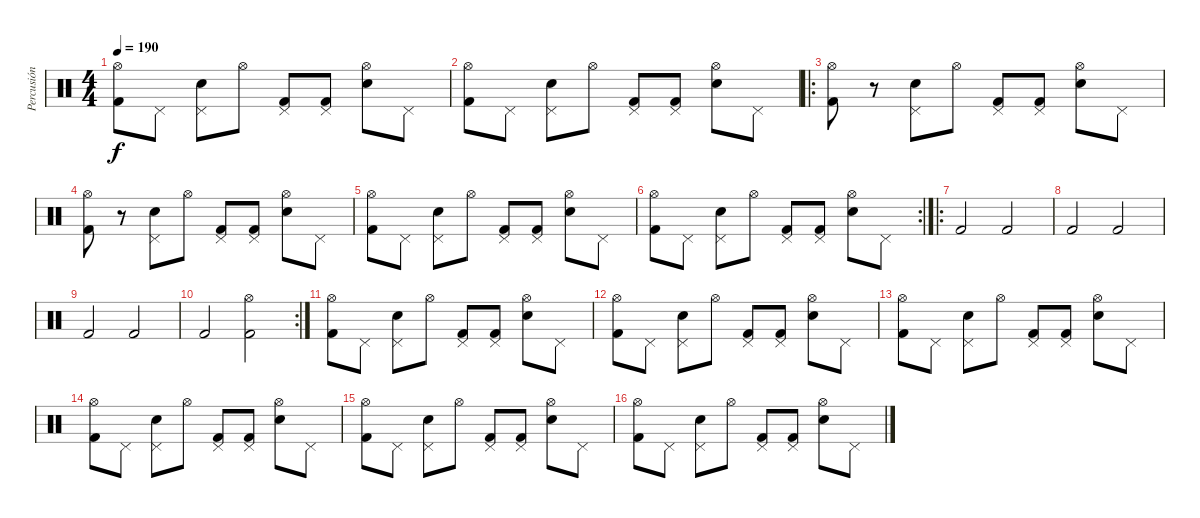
\track ("Percusión" "Percusión") {instrument percussion}
\staff {score}
\articulation defaults
\ts (4 4)
\tempo 190
\clef neutral
\ks c
("Hi-Hat (open)" "Kick (hit) 2").8{dy f} "Pedal Hi-Hat (hit)".8 ("Pedal Hi-Hat (hit)" "Snare (hit) 2").8 "Hi-Hat (open)".8 ("Pedal Hi-Hat (hit)" "Kick (hit) 2").8 ("Pedal Hi-Hat (hit)" "Kick (hit) 2").8 ("Hi-Hat (open)" "Snare (hit) 2").8 "Pedal Hi-Hat (hit)".8 |
("Hi-Hat (open)" "Kick (hit) 2").8 "Pedal Hi-Hat (hit)".8 ("Pedal Hi-Hat (hit)" "Snare (hit) 2").8 "Hi-Hat (open)".8 ("Pedal Hi-Hat (hit)" "Kick (hit) 2").8 ("Pedal Hi-Hat (hit)" "Kick (hit) 2").8 ("Hi-Hat (open)" "Snare (hit) 2").8 "Pedal Hi-Hat (hit)".8 |
\ro
("Hi-Hat (open)" "Kick (hit) 2").8 r.8 ("Pedal Hi-Hat (hit)" "Snare (hit) 2").8 "Hi-Hat (open)".8 ("Pedal Hi-Hat (hit)" "Kick (hit) 2").8 ("Pedal Hi-Hat (hit)" "Kick (hit) 2").8 ("Hi-Hat (open)" "Snare (hit) 2").8 "Pedal Hi-Hat (hit)".8 |
("Hi-Hat (open)" "Kick (hit) 2").8 r.8 ("Pedal Hi-Hat (hit)" "Snare (hit) 2").8 "Hi-Hat (open)".8 ("Pedal Hi-Hat (hit)" "Kick (hit) 2").8 ("Pedal Hi-Hat (hit)" "Kick (hit) 2").8 ("Hi-Hat (open)" "Snare (hit) 2").8 "Pedal Hi-Hat (hit)".8 |
("Hi-Hat (open)" "Kick (hit) 2").8 "Pedal Hi-Hat (hit)".8 ("Pedal Hi-Hat (hit)" "Snare (hit) 2").8 "Hi-Hat (open)".8 ("Pedal Hi-Hat (hit)" "Kick (hit) 2").8 ("Pedal Hi-Hat (hit)" "Kick (hit) 2").8 ("Hi-Hat (open)" "Snare (hit) 2").8 "Pedal Hi-Hat (hit)".8 |
\rc 2
("Hi-Hat (open)" "Kick (hit) 2").8 "Pedal Hi-Hat (hit)".8 ("Pedal Hi-Hat (hit)" "Snare (hit) 2").8 "Hi-Hat (open)".8 ("Pedal Hi-Hat (hit)" "Kick (hit) 2").8 ("Pedal Hi-Hat (hit)" "Kick (hit) 2").8 ("Hi-Hat (open)" "Snare (hit) 2").8 "Pedal Hi-Hat (hit)".8 |
\ro "Kick (hit) 2".2 "Kick (hit) 2".2
|
"Kick (hit) 2".2 "Kick (hit) 2".2 |
"Kick (hit) 2".2 "Kick (hit) 2".2 |
\rc 2 "Kick (hit) 2".2
("Hi-Hat (open)" "Kick (hit) 2").2 |
("Hi-Hat (open)" "Kick (hit) 2").8 "Pedal Hi-Hat (hit)".8 ("Pedal Hi-Hat (hit)" "Snare (hit) 2").8 "Hi-Hat (open)".8 ("Pedal Hi-Hat (hit)" "Kick (hit) 2").8 ("Pedal Hi-Hat (hit)" "Kick (hit) 2").8 ("Hi-Hat (open)" "Snare (hit) 2").8 "Pedal Hi-Hat (hit)".8 |
("Hi-Hat (open)" "Kick (hit) 2").8 "Pedal Hi-Hat (hit)".8 ("Pedal Hi-Hat (hit)" "Snare (hit) 2").8 "Hi-Hat (open)".8 ("Pedal Hi-Hat (hit)" "Kick (hit) 2").8 ("Pedal Hi-Hat (hit)" "Kick (hit) 2").8 ("Hi-Hat (open)" "Snare (hit) 2").8 "Pedal Hi-Hat (hit)".8 |
("Hi-Hat (open)" "Kick (hit) 2").8 "Pedal Hi-Hat (hit)".8 ("Pedal Hi-Hat (hit)" "Snare (hit) 2").8 "Hi-Hat (open)".8 ("Pedal Hi-Hat (hit)" "Kick (hit) 2").8 ("Pedal Hi-Hat (hit)" "Kick (hit) 2").8 ("Hi-Hat (open)" "Snare (hit) 2").8 "Pedal Hi-Hat (hit)".8 |
("Hi-Hat (open)" "Kick (hit) 2").8 "Pedal Hi-Hat (hit)".8 ("Pedal Hi-Hat (hit)" "Snare (hit) 2").8 "Hi-Hat (open)".8 ("Pedal Hi-Hat (hit)" "Kick (hit) 2").8 ("Pedal Hi-Hat (hit)" "Kick (hit) 2").8 ("Hi-Hat (open)" "Snare (hit) 2").8 "Pedal Hi-Hat (hit)".8 |
("Hi-Hat (open)" "Kick (hit) 2").8 "Pedal Hi-Hat (hit)".8 ("Pedal Hi-Hat (hit)" "Snare (hit) 2").8 "Hi-Hat (open)".8 ("Pedal Hi-Hat (hit)" "Kick (hit) 2").8 ("Pedal Hi-Hat (hit)" "Kick (hit) 2").8 ("Hi-Hat (open)" "Snare (hit) 2").8 "Pedal Hi-Hat (hit)".8 |
("Hi-Hat (open)" "Kick (hit) 2").8 "Pedal Hi-Hat (hit)".8 ("Pedal Hi-Hat (hit)" "Snare (hit) 2").8 "Hi-Hat (open)".8 ("Pedal Hi-Hat (hit)" "Kick (hit) 2").8 ("Pedal Hi-Hat (hit)" "Kick (hit) 2").8 ("Hi-Hat (open)" "Snare (hit) 2").8 "Pedal Hi-Hat (hit)".8
